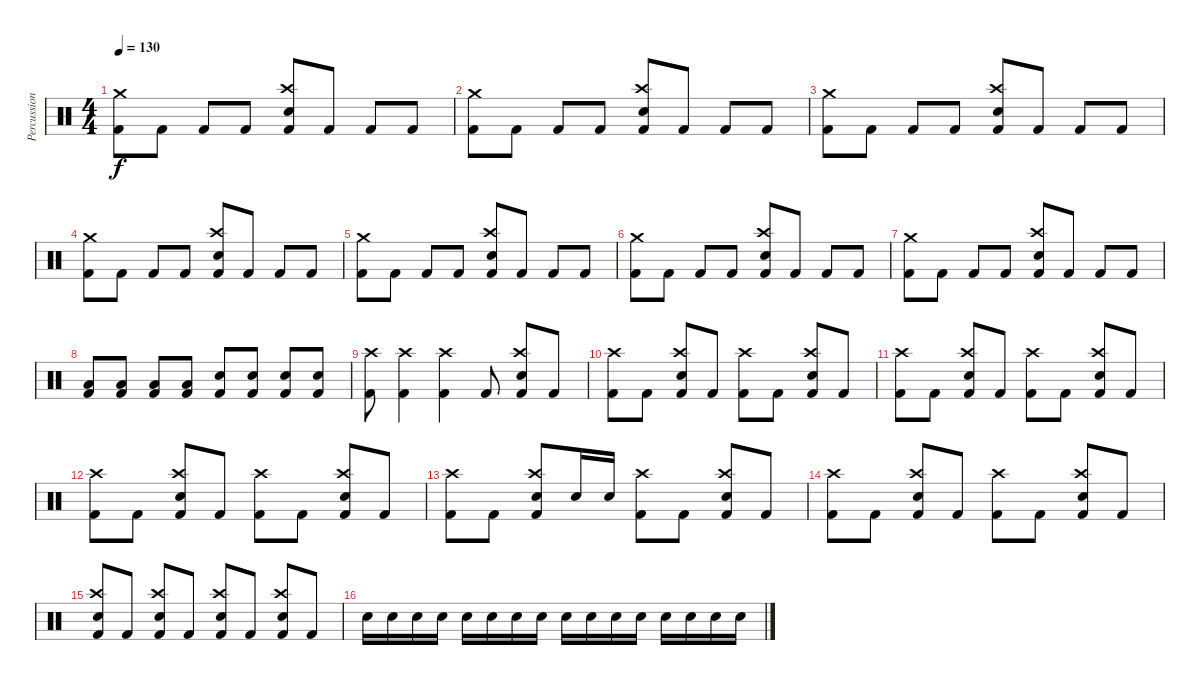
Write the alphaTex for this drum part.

\track ("Percussion" "Percussion") {instrument percussion}
\staff {score}
\articulation defaults
\ts (4 4)
\tempo 130
\clef neutral
\ks c
("Crash medium (hit)" "Kick (hit) 2").8{dy f} "Kick (hit) 2".8 "Kick (hit) 2".8 "Kick (hit) 2".8 ("Crash high (hit)" "Electric Snare (hit)" "Kick (hit) 2").8 "Kick (hit) 2".8 "Kick (hit) 2".8 "Kick (hit) 2".8 |
("Crash medium (hit)" "Kick (hit) 2").8 "Kick (hit) 2".8 "Kick (hit) 2".8 "Kick (hit) 2".8 ("Crash high (hit)" "Electric Snare (hit)" "Kick (hit) 2").8 "Kick (hit) 2".8 "Kick (hit) 2".8 "Kick (hit) 2".8 |
("Crash medium (hit)" "Kick (hit) 2").8 "Kick (hit) 2".8 "Kick (hit) 2".8 "Kick (hit) 2".8 ("Crash high (hit)" "Electric Snare (hit)" "Kick (hit) 2").8 "Kick (hit) 2".8 "Kick (hit) 2".8 "Kick (hit) 2".8 |
("Crash medium (hit)" "Kick (hit) 2").8 "Kick (hit) 2".8 "Kick (hit) 2".8 "Kick (hit) 2".8 ("Crash high (hit)" "Electric Snare (hit)" "Kick (hit) 2").8 "Kick (hit) 2".8 "Kick (hit) 2".8 "Kick (hit) 2".8 |
("Crash medium (hit)" "Kick (hit) 2").8 "Kick (hit) 2".8 "Kick (hit) 2".8 "Kick (hit) 2".8 ("Crash high (hit)" "Electric Snare (hit)" "Kick (hit) 2").8 "Kick (hit) 2".8 "Kick (hit) 2".8 "Kick (hit) 2".8 |
("Crash medium (hit)" "Kick (hit) 2").8 "Kick (hit) 2".8 "Kick (hit) 2".8 "Kick (hit) 2".8 ("Crash high (hit)" "Electric Snare (hit)" "Kick (hit) 2").8 "Kick (hit) 2".8 "Kick (hit) 2".8 "Kick (hit) 2".8 |
("Crash medium (hit)" "Kick (hit) 2").8 "Kick (hit) 2".8 "Kick (hit) 2".8 "Kick (hit) 2".8 ("Crash high (hit)" "Electric Snare (hit)" "Kick (hit) 2").8 "Kick (hit) 2".8 "Kick (hit) 2".8 "Kick (hit) 2".8 |
("Low Floor Tom (hit)" "Kick (hit) 2").8 ("Low Floor Tom (hit)" "Kick (hit) 2").8 ("Low Floor Tom (hit)" "Kick (hit) 2").8 ("Low Floor Tom (hit)" "Kick (hit) 2").8 ("Electric Snare (hit)" "Kick (hit) 2").8 ("Electric Snare (hit)" "Kick (hit) 2").8 ("Electric Snare (hit)" "Kick (hit) 2").8 ("Electric Snare (hit)" "Kick (hit) 2").8 |
("Crash high (hit)" "Kick (hit) 2").8 ("Crash high (hit)" "Kick (hit) 2").4 ("Crash high (hit)" "Kick (hit) 2").4 "Kick (hit) 2".8 ("Crash high (hit)" "Electric Snare (hit)" "Kick (hit) 2").8 "Kick (hit) 2".8 |
("Crash high (hit)" "Kick (hit) 2").8 "Kick (hit) 2".8 ("Crash high (hit)" "Electric Snare (hit)" "Kick (hit) 2").8 "Kick (hit) 2".8 ("Crash high (hit)" "Kick (hit) 2").8 "Kick (hit) 2".8 ("Crash high (hit)" "Electric Snare (hit)" "Kick (hit) 2").8 "Kick (hit) 2".8 |
("Crash high (hit)" "Kick (hit) 2").8 "Kick (hit) 2".8 ("Crash high (hit)" "Electric Snare (hit)" "Kick (hit) 2").8 "Kick (hit) 2".8 ("Crash high (hit)" "Kick (hit) 2").8 "Kick (hit) 2".8 ("Crash high (hit)" "Electric Snare (hit)" "Kick (hit) 2").8 "Kick (hit) 2".8 |
("Crash high (hit)" "Kick (hit) 2").8 "Kick (hit) 2".8 ("Crash high (hit)" "Electric Snare (hit)" "Kick (hit) 2").8 "Kick (hit) 2".8 ("Crash high (hit)" "Kick (hit) 2").8 "Kick (hit) 2".8 ("Crash high (hit)" "Electric Snare (hit)" "Kick (hit) 2").8 "Kick (hit) 2".8 |
("Crash high (hit)" "Kick (hit) 2").8 "Kick (hit) 2".8 ("Crash high (hit)" "Electric Snare (hit)" "Kick (hit) 2").8 "Electric Snare (hit)".16 "Electric Snare (hit)".16 ("Crash high (hit)" "Kick (hit) 2").8 "Kick (hit) 2".8 ("Crash high (hit)" "Electric Snare (hit)" "Kick (hit) 2").8 "Kick (hit) 2".8 |
("Crash high (hit)" "Kick (hit) 2").8 "Kick (hit) 2".8 ("Crash high (hit)" "Electric Snare (hit)" "Kick (hit) 2").8 "Kick (hit) 2".8 ("Crash high (hit)" "Kick (hit) 2").8 "Kick (hit) 2".8 ("Crash high (hit)" "Electric Snare (hit)" "Kick (hit) 2").8 "Kick (hit) 2".8 |
("Crash high (hit)" "Electric Snare (hit)" "Kick (hit) 2").8 "Kick (hit) 2".8 ("Crash high (hit)" "Electric Snare (hit)" "Kick (hit) 2").8 "Kick (hit) 2".8 ("Crash high (hit)" "Electric Snare (hit)" "Kick (hit) 2").8 "Kick (hit) 2".8 ("Crash high (hit)" "Electric Snare (hit)" "Kick (hit) 2").8 "Kick (hit) 2".8 |
"Electric Snare (hit)".16 "Electric Snare (hit)".16 "Electric Snare (hit)".16 "Electric Snare (hit)".16 "Electric Snare (hit)".16 "Electric Snare (hit)".16 "Electric Snare (hit)".16 "Electric Snare (hit)".16 "Electric Snare (hit)".16 "Electric Snare (hit)".16 "Electric Snare (hit)".16 "Electric Snare (hit)".16 "Electric Snare (hit)".16 "Electric Snare (hit)".16 "Electric Snare (hit)".16 "Electric Snare (hit)".16
